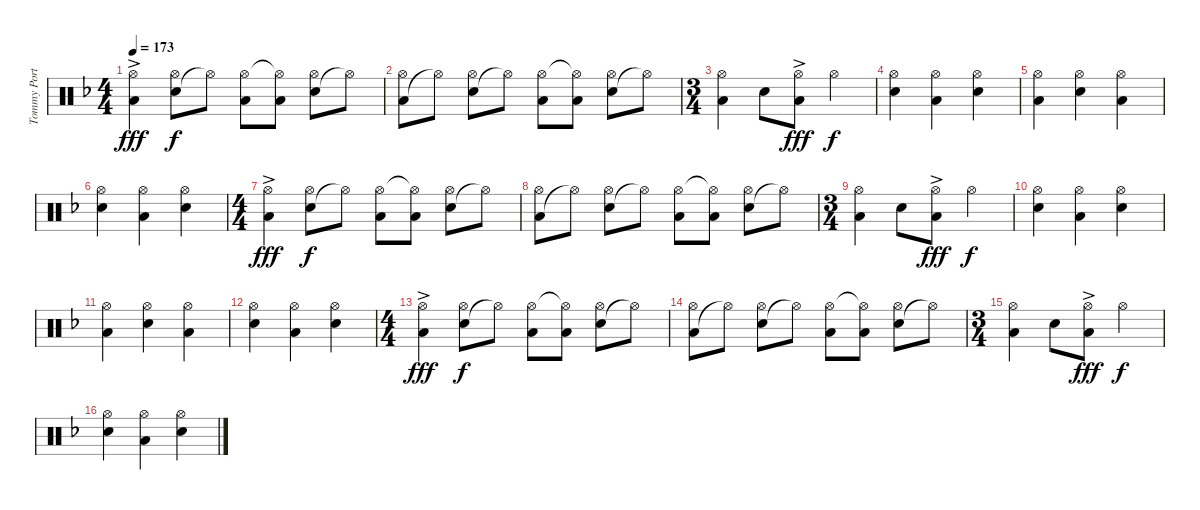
\track ("Tommy Portimo - Drums" "Tommy Port") {instrument percussion}
\staff {score}
\articulation defaults
\ts (4 4)
\tempo 173
\clef neutral
\ks dminor
("Low Floor Tom (hit)"{ac} "Hi-Hat (open)").4{dy fff} ("Electric Snare (hit)" "Hi-Hat (open)").8{dy f} "Hi-Hat (open)"{t}.8 ("Low Floor Tom (hit)" "Hi-Hat (open)").8 ("Low Floor Tom (hit)" "Hi-Hat (open)"{t}).8 ("Electric Snare (hit)" "Hi-Hat (open)").8 "Hi-Hat (open)"{t}.8 |
("Low Floor Tom (hit)" "Hi-Hat (open)").8 "Hi-Hat (open)"{t}.8 ("Electric Snare (hit)" "Hi-Hat (open)").8 "Hi-Hat (open)"{t}.8 ("Low Floor Tom (hit)" "Hi-Hat (open)").8 ("Low Floor Tom (hit)" "Hi-Hat (open)"{t}).8 ("Electric Snare (hit)" "Hi-Hat (open)").8 "Hi-Hat (open)"{t}.8 |
\ts (3 4)
("Low Floor Tom (hit)" "Hi-Hat (open)").4 "Electric Snare (hit)".8 ("Low Floor Tom (hit)" "Hi-Hat (open)"{ac}).8{dy fff} "Hi-Hat (open)".4{dy f} |
("Electric Snare (hit)" "Hi-Hat (open)").4 ("Low Floor Tom (hit)" "Hi-Hat (open)").4 ("Electric Snare (hit)" "Hi-Hat (open)").4 |
("Low Floor Tom (hit)" "Hi-Hat (open)").4 ("Electric Snare (hit)" "Hi-Hat (open)").4 ("Low Floor Tom (hit)" "Hi-Hat (open)").4 |
("Electric Snare (hit)" "Hi-Hat (open)").4 ("Low Floor Tom (hit)" "Hi-Hat (open)").4 ("Electric Snare (hit)" "Hi-Hat (open)").4 |
\ts (4 4)
("Low Floor Tom (hit)"{ac} "Hi-Hat (open)").4{dy fff} ("Electric Snare (hit)" "Hi-Hat (open)").8{dy f} "Hi-Hat (open)"{t}.8 ("Low Floor Tom (hit)" "Hi-Hat (open)").8 ("Low Floor Tom (hit)" "Hi-Hat (open)"{t}).8 ("Electric Snare (hit)" "Hi-Hat (open)").8 "Hi-Hat (open)"{t}.8 |
("Low Floor Tom (hit)" "Hi-Hat (open)").8 "Hi-Hat (open)"{t}.8 ("Electric Snare (hit)" "Hi-Hat (open)").8 "Hi-Hat (open)"{t}.8 ("Low Floor Tom (hit)" "Hi-Hat (open)").8 ("Low Floor Tom (hit)" "Hi-Hat (open)"{t}).8 ("Electric Snare (hit)" "Hi-Hat (open)").8 "Hi-Hat (open)"{t}.8 |
\ts (3 4)
("Low Floor Tom (hit)" "Hi-Hat (open)").4 "Electric Snare (hit)".8 ("Low Floor Tom (hit)" "Hi-Hat (open)"{ac}).8{dy fff} "Hi-Hat (open)".4{dy f} |
("Electric Snare (hit)" "Hi-Hat (open)").4 ("Low Floor Tom (hit)" "Hi-Hat (open)").4 ("Electric Snare (hit)" "Hi-Hat (open)").4 |
("Low Floor Tom (hit)" "Hi-Hat (open)").4 ("Electric Snare (hit)" "Hi-Hat (open)").4 ("Low Floor Tom (hit)" "Hi-Hat (open)").4 |
("Electric Snare (hit)" "Hi-Hat (open)").4 ("Low Floor Tom (hit)" "Hi-Hat (open)").4 ("Electric Snare (hit)" "Hi-Hat (open)").4 |
\ts (4 4)
("Low Floor Tom (hit)"{ac} "Hi-Hat (open)").4{dy fff} ("Electric Snare (hit)" "Hi-Hat (open)").8{dy f} "Hi-Hat (open)"{t}.8 ("Low Floor Tom (hit)" "Hi-Hat (open)").8 ("Low Floor Tom (hit)" "Hi-Hat (open)"{t}).8 ("Electric Snare (hit)" "Hi-Hat (open)").8 "Hi-Hat (open)"{t}.8 |
("Low Floor Tom (hit)" "Hi-Hat (open)").8 "Hi-Hat (open)"{t}.8 ("Electric Snare (hit)" "Hi-Hat (open)").8 "Hi-Hat (open)"{t}.8 ("Low Floor Tom (hit)" "Hi-Hat (open)").8 ("Low Floor Tom (hit)" "Hi-Hat (open)"{t}).8 ("Electric Snare (hit)" "Hi-Hat (open)").8 "Hi-Hat (open)"{t}.8 |
\ts (3 4)
("Low Floor Tom (hit)" "Hi-Hat (open)").4 "Electric Snare (hit)".8 ("Low Floor Tom (hit)" "Hi-Hat (open)"{ac}).8{dy fff} "Hi-Hat (open)".4{dy f} |
("Electric Snare (hit)" "Hi-Hat (open)").4 ("Low Floor Tom (hit)" "Hi-Hat (open)").4 ("Electric Snare (hit)" "Hi-Hat (open)").4
